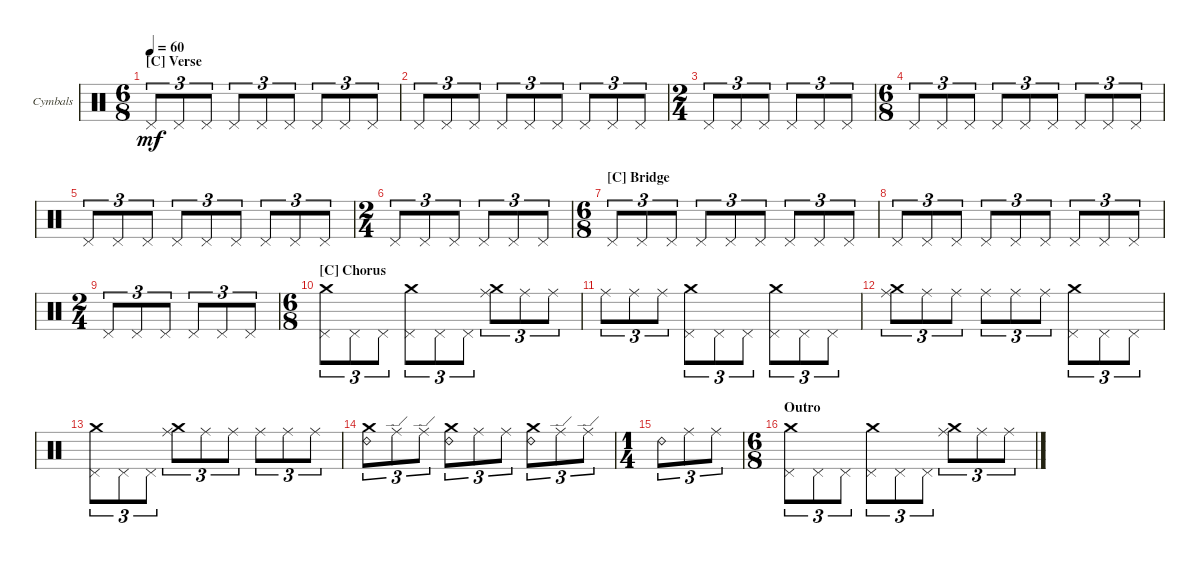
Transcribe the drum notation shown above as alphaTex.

\defaultSystemsLayout 4
\bracketExtendMode groupsimilarinstruments
\firstSystemTrackNameOrientation horizontal
\otherSystemsTrackNameOrientation horizontal
\track ("Cymbals" "Cymbals") {instrument percussion}
\staff {score}
\articulation defaults
\ts (6 8)
\section ("C" "Verse")
\tempo 60
\clef neutral
\ks c "Pedal Hi-Hat (hit)".8{tu (3 2) dy mf} "Pedal Hi-Hat (hit)".8{tu (3 2)} "Pedal Hi-Hat (hit)".8{tu (3 2)} "Pedal Hi-Hat (hit)".8{tu (3 2)} "Pedal Hi-Hat (hit)".8{tu (3 2)} "Pedal Hi-Hat (hit)".8{tu (3 2)} "Pedal Hi-Hat (hit)".8{tu (3 2)} "Pedal Hi-Hat (hit)".8{tu (3 2)} "Pedal Hi-Hat (hit)".8{tu (3 2)}
|
"Pedal Hi-Hat (hit)".8{tu (3 2)} "Pedal Hi-Hat (hit)".8{tu (3 2)} "Pedal Hi-Hat (hit)".8{tu (3 2)} "Pedal Hi-Hat (hit)".8{tu (3 2)} "Pedal Hi-Hat (hit)".8{tu (3 2)} "Pedal Hi-Hat (hit)".8{tu (3 2)} "Pedal Hi-Hat (hit)".8{tu (3 2)} "Pedal Hi-Hat (hit)".8{tu (3 2)} "Pedal Hi-Hat (hit)".8{tu (3 2)} |
\ts (2 4)
"Pedal Hi-Hat (hit)".8{tu (3 2)} "Pedal Hi-Hat (hit)".8{tu (3 2)} "Pedal Hi-Hat (hit)".8{tu (3 2)} "Pedal Hi-Hat (hit)".8{tu (3 2)} "Pedal Hi-Hat (hit)".8{tu (3 2)} "Pedal Hi-Hat (hit)".8{tu (3 2)} |
\ts (6 8)
"Pedal Hi-Hat (hit)".8{tu (3 2)} "Pedal Hi-Hat (hit)".8{tu (3 2)} "Pedal Hi-Hat (hit)".8{tu (3 2)} "Pedal Hi-Hat (hit)".8{tu (3 2)} "Pedal Hi-Hat (hit)".8{tu (3 2)} "Pedal Hi-Hat (hit)".8{tu (3 2)} "Pedal Hi-Hat (hit)".8{tu (3 2)} "Pedal Hi-Hat (hit)".8{tu (3 2)} "Pedal Hi-Hat (hit)".8{tu (3 2)} |
"Pedal Hi-Hat (hit)".8{tu (3 2)} "Pedal Hi-Hat (hit)".8{tu (3 2)} "Pedal Hi-Hat (hit)".8{tu (3 2)} "Pedal Hi-Hat (hit)".8{tu (3 2)} "Pedal Hi-Hat (hit)".8{tu (3 2)} "Pedal Hi-Hat (hit)".8{tu (3 2)} "Pedal Hi-Hat (hit)".8{tu (3 2)} "Pedal Hi-Hat (hit)".8{tu (3 2)} "Pedal Hi-Hat (hit)".8{tu (3 2)} |
\ts (2 4)
"Pedal Hi-Hat (hit)".8{tu (3 2)} "Pedal Hi-Hat (hit)".8{tu (3 2)} "Pedal Hi-Hat (hit)".8{tu (3 2)} "Pedal Hi-Hat (hit)".8{tu (3 2)} "Pedal Hi-Hat (hit)".8{tu (3 2)} "Pedal Hi-Hat (hit)".8{tu (3 2)} |
\ts (6 8)
\section ("C" "Bridge")
"Pedal Hi-Hat (hit)".8{tu (3 2)} "Pedal Hi-Hat (hit)".8{tu (3 2)} "Pedal Hi-Hat (hit)".8{tu (3 2)} "Pedal Hi-Hat (hit)".8{tu (3 2)} "Pedal Hi-Hat (hit)".8{tu (3 2)} "Pedal Hi-Hat (hit)".8{tu (3 2)} "Pedal Hi-Hat (hit)".8{tu (3 2)} "Pedal Hi-Hat (hit)".8{tu (3 2)} "Pedal Hi-Hat (hit)".8{tu (3 2)} |
"Pedal Hi-Hat (hit)".8{tu (3 2)} "Pedal Hi-Hat (hit)".8{tu (3 2)} "Pedal Hi-Hat (hit)".8{tu (3 2)} "Pedal Hi-Hat (hit)".8{tu (3 2)} "Pedal Hi-Hat (hit)".8{tu (3 2)} "Pedal Hi-Hat (hit)".8{tu (3 2)} "Pedal Hi-Hat (hit)".8{tu (3 2)} "Pedal Hi-Hat (hit)".8{tu (3 2)} "Pedal Hi-Hat (hit)".8{tu (3 2)} |
\ts (2 4)
"Pedal Hi-Hat (hit)".8{tu (3 2)} "Pedal Hi-Hat (hit)".8{tu (3 2)} "Pedal Hi-Hat (hit)".8{tu (3 2)} "Pedal Hi-Hat (hit)".8{tu (3 2)} "Pedal Hi-Hat (hit)".8{tu (3 2)} "Pedal Hi-Hat (hit)".8{tu (3 2)} |
\ts (6 8)
\section ("C" "Chorus")
("Pedal Hi-Hat (hit)" "Crash medium (hit)").8{tu (3 2)} "Pedal Hi-Hat (hit)".8{tu (3 2)} "Pedal Hi-Hat (hit)".8{tu (3 2)} ("Pedal Hi-Hat (hit)" "Crash medium (hit)").8{tu (3 2)} "Pedal Hi-Hat (hit)".8{tu (3 2)} "Pedal Hi-Hat (hit)".8{tu (3 2)} ("Ride (middle)" "Crash medium (hit)").8{tu (3 2)} "Ride (middle)".8{tu (3 2)} "Ride (middle)".8{tu (3 2)} |
"Ride (middle)".8{tu (3 2)} "Ride (middle)".8{tu (3 2)} "Ride (middle)".8{tu (3 2)} ("Pedal Hi-Hat (hit)" "Crash medium (hit)").8{tu (3 2)} "Pedal Hi-Hat (hit)".8{tu (3 2)} "Pedal Hi-Hat (hit)".8{tu (3 2)} ("Pedal Hi-Hat (hit)" "Crash medium (hit)").8{tu (3 2)} "Pedal Hi-Hat (hit)".8{tu (3 2)} "Pedal Hi-Hat (hit)".8{tu (3 2)} |
("Ride (middle)" "Crash medium (hit)").8{tu (3 2)} "Ride (middle)".8{tu (3 2)} "Ride (middle)".8{tu (3 2)} "Ride (middle)".8{tu (3 2)} "Ride (middle)".8{tu (3 2)} "Ride (middle)".8{tu (3 2)} ("Pedal Hi-Hat (hit)" "Crash medium (hit)").8{tu (3 2)} "Pedal Hi-Hat (hit)".8{tu (3 2)} "Pedal Hi-Hat (hit)".8{tu (3 2)} |
("Pedal Hi-Hat (hit)" "Crash medium (hit)").8{tu (3 2)} "Pedal Hi-Hat (hit)".8{tu (3 2)} "Pedal Hi-Hat (hit)".8{tu (3 2)} ("Ride (middle)" "Crash medium (hit)").8{tu (3 2)} "Ride (middle)".8{tu (3 2)} "Ride (middle)".8{tu (3 2)} "Ride (middle)".8{tu (3 2)} "Ride (middle)".8{tu (3 2)} "Ride (middle)".8{tu (3 2)} |
("Ride (bell) 2" "Crash medium (hit)").8{tu (3 2)} "Ride (edge)".8{tu (3 2)} "Ride (edge)".8{tu (3 2)} ("Ride (bell) 2" "Crash medium (hit)").8{tu (3 2)} "Ride (middle)".8{tu (3 2)} "Ride (middle)".8{tu (3 2)} ("Ride (bell) 2" "Crash medium (hit)").8{tu (3 2)} "Ride (edge)".8{tu (3 2)} "Ride (edge)".8{tu (3 2)} |
\ts (1 4)
"Ride (bell) 2".8{tu (3 2)} "Ride (middle)".8{tu (3 2)} "Ride (middle)".8{tu (3 2)} |
\ts (6 8)
\section ("" "Outro")
("Pedal Hi-Hat (hit)" "Crash medium (hit)").8{tu (3 2)} "Pedal Hi-Hat (hit)".8{tu (3 2)} "Pedal Hi-Hat (hit)".8{tu (3 2)} ("Pedal Hi-Hat (hit)" "Crash medium (hit)").8{tu (3 2)} "Pedal Hi-Hat (hit)".8{tu (3 2)} "Pedal Hi-Hat (hit)".8{tu (3 2)} ("Ride (middle)" "Crash medium (hit)").8{tu (3 2)} "Ride (middle)".8{tu (3 2)} "Ride (middle)".8{tu (3 2)}
